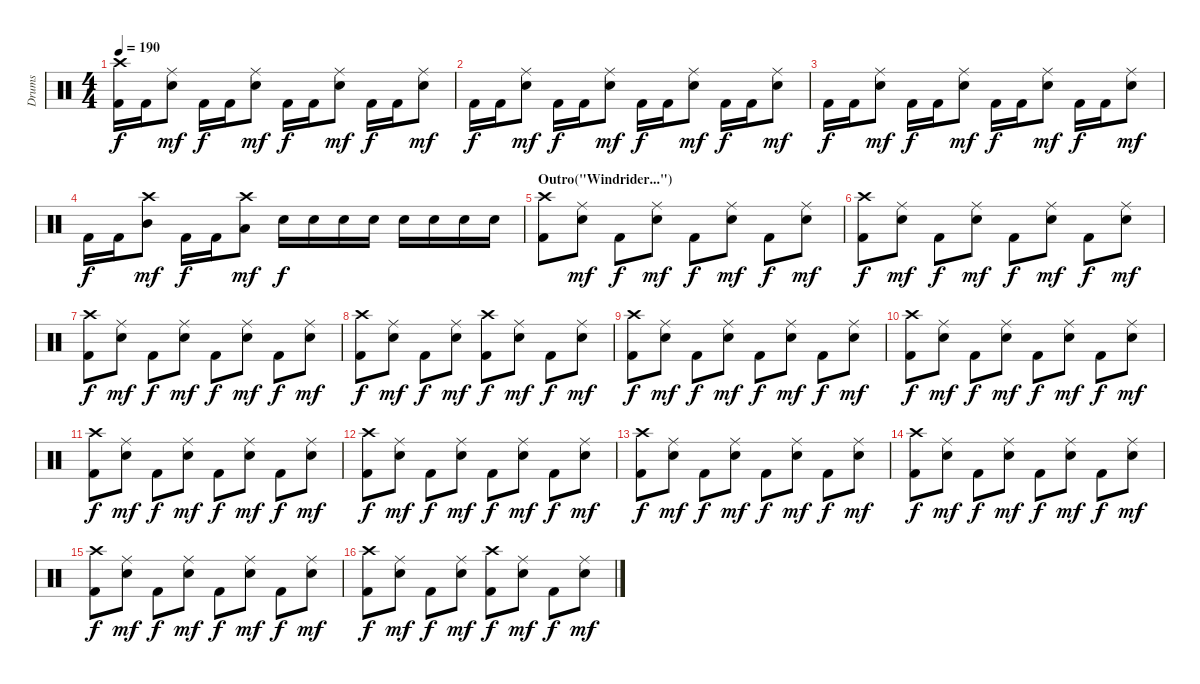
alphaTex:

\track ("Drums" "Drums") {instrument percussion}
\staff {score}
\articulation defaults
\ts (4 4)
\tempo 190
\clef neutral
\ks c
("Crash high (hit)" "Kick (hit) 2").16{dy f} "Kick (hit) 2".16 ("Ride (middle)" "Snare (hit) 2").8{dy mf} "Kick (hit) 2".16{dy f} "Kick (hit) 2".16 ("Ride (middle)" "Snare (hit) 2").8{dy mf} "Kick (hit) 2".16{dy f} "Kick (hit) 2".16 ("Ride (middle)" "Snare (hit) 2").8{dy mf} "Kick (hit) 2".16{dy f} "Kick (hit) 2".16 ("Ride (middle)" "Snare (hit) 2").8{dy mf} |
"Kick (hit) 2".16{dy f} "Kick (hit) 2".16 ("Ride (middle)" "Snare (hit) 2").8{dy mf} "Kick (hit) 2".16{dy f} "Kick (hit) 2".16 ("Ride (middle)" "Snare (hit) 2").8{dy mf} "Kick (hit) 2".16{dy f} "Kick (hit) 2".16 ("Ride (middle)" "Snare (hit) 2").8{dy mf} "Kick (hit) 2".16{dy f} "Kick (hit) 2".16 ("Ride (middle)" "Snare (hit) 2").8{dy mf} |
"Kick (hit) 2".16{dy f} "Kick (hit) 2".16 ("Ride (middle)" "Snare (hit) 2").8{dy mf} "Kick (hit) 2".16{dy f} "Kick (hit) 2".16 ("Ride (middle)" "Snare (hit) 2").8{dy mf} "Kick (hit) 2".16{dy f} "Kick (hit) 2".16 ("Ride (middle)" "Snare (hit) 2").8{dy mf} "Kick (hit) 2".16{dy f} "Kick (hit) 2".16 ("Ride (middle)" "Snare (hit) 2").8{dy mf} |
"Kick (hit) 2".16{dy f} "Kick (hit) 2".16 ("Crash high (hit)" "Mid Tom (hit)").8{dy mf} "Kick (hit) 2".16{dy f} "Kick (hit) 2".16 ("Crash high (hit)" "Low Tom (hit)").8{dy mf} "Snare (hit) 2".16{dy f} "Snare (hit) 2".16 "Snare (hit) 2".16 "Snare (hit) 2".16 "Snare (hit) 2".16 "Snare (hit) 2".16 "Snare (hit) 2".16 "Snare (hit) 2".16 |
\section ("" "Outro(\"Windrider...\")")
("Crash high (hit)" "Kick (hit) 2").8 ("Ride (middle)" "Snare (hit) 2").8{dy mf} "Kick (hit) 2".8{dy f} ("Ride (middle)" "Snare (hit) 2").8{dy mf} "Kick (hit) 2".8{dy f} ("Ride (middle)" "Snare (hit) 2").8{dy mf} "Kick (hit) 2".8{dy f} ("Ride (middle)" "Snare (hit) 2").8{dy mf} |
("Crash high (hit)" "Kick (hit) 2").8{dy f} ("Ride (middle)" "Snare (hit) 2").8{dy mf} "Kick (hit) 2".8{dy f} ("Ride (middle)" "Snare (hit) 2").8{dy mf} "Kick (hit) 2".8{dy f} ("Ride (middle)" "Snare (hit) 2").8{dy mf} "Kick (hit) 2".8{dy f} ("Ride (middle)" "Snare (hit) 2").8{dy mf} |
("Crash high (hit)" "Kick (hit) 2").8{dy f} ("Ride (middle)" "Snare (hit) 2").8{dy mf} "Kick (hit) 2".8{dy f} ("Ride (middle)" "Snare (hit) 2").8{dy mf} "Kick (hit) 2".8{dy f} ("Ride (middle)" "Snare (hit) 2").8{dy mf} "Kick (hit) 2".8{dy f} ("Ride (middle)" "Snare (hit) 2").8{dy mf} |
("Crash high (hit)" "Kick (hit) 2").8{dy f} ("Ride (middle)" "Snare (hit) 2").8{dy mf} "Kick (hit) 2".8{dy f} ("Ride (middle)" "Snare (hit) 2").8{dy mf} ("Crash high (hit)" "Kick (hit) 2").8{dy f} ("Ride (middle)" "Snare (hit) 2").8{dy mf} "Kick (hit) 2".8{dy f} ("Ride (middle)" "Snare (hit) 2").8{dy mf} |
("Crash high (hit)" "Kick (hit) 2").8{dy f} ("Ride (middle)" "Snare (hit) 2").8{dy mf} "Kick (hit) 2".8{dy f} ("Ride (middle)" "Snare (hit) 2").8{dy mf} "Kick (hit) 2".8{dy f} ("Ride (middle)" "Snare (hit) 2").8{dy mf} "Kick (hit) 2".8{dy f} ("Ride (middle)" "Snare (hit) 2").8{dy mf} |
("Crash high (hit)" "Kick (hit) 2").8{dy f} ("Ride (middle)" "Snare (hit) 2").8{dy mf} "Kick (hit) 2".8{dy f} ("Ride (middle)" "Snare (hit) 2").8{dy mf} "Kick (hit) 2".8{dy f} ("Ride (middle)" "Snare (hit) 2").8{dy mf} "Kick (hit) 2".8{dy f} ("Ride (middle)" "Snare (hit) 2").8{dy mf} |
("Crash high (hit)" "Kick (hit) 2").8{dy f} ("Ride (middle)" "Snare (hit) 2").8{dy mf} "Kick (hit) 2".8{dy f} ("Ride (middle)" "Snare (hit) 2").8{dy mf} "Kick (hit) 2".8{dy f} ("Ride (middle)" "Snare (hit) 2").8{dy mf} "Kick (hit) 2".8{dy f} ("Ride (middle)" "Snare (hit) 2").8{dy mf} |
("Crash high (hit)" "Kick (hit) 2").8{dy f} ("Ride (middle)" "Snare (hit) 2").8{dy mf} "Kick (hit) 2".8{dy f} ("Ride (middle)" "Snare (hit) 2").8{dy mf} "Kick (hit) 2".8{dy f} ("Ride (middle)" "Snare (hit) 2").8{dy mf} "Kick (hit) 2".8{dy f} ("Ride (middle)" "Snare (hit) 2").8{dy mf} |
("Crash high (hit)" "Kick (hit) 2").8{dy f} ("Ride (middle)" "Snare (hit) 2").8{dy mf} "Kick (hit) 2".8{dy f} ("Ride (middle)" "Snare (hit) 2").8{dy mf} "Kick (hit) 2".8{dy f} ("Ride (middle)" "Snare (hit) 2").8{dy mf} "Kick (hit) 2".8{dy f} ("Ride (middle)" "Snare (hit) 2").8{dy mf} |
("Crash high (hit)" "Kick (hit) 2").8{dy f} ("Ride (middle)" "Snare (hit) 2").8{dy mf} "Kick (hit) 2".8{dy f} ("Ride (middle)" "Snare (hit) 2").8{dy mf} "Kick (hit) 2".8{dy f} ("Ride (middle)" "Snare (hit) 2").8{dy mf} "Kick (hit) 2".8{dy f} ("Ride (middle)" "Snare (hit) 2").8{dy mf} |
("Crash high (hit)" "Kick (hit) 2").8{dy f} ("Ride (middle)" "Snare (hit) 2").8{dy mf} "Kick (hit) 2".8{dy f} ("Ride (middle)" "Snare (hit) 2").8{dy mf} "Kick (hit) 2".8{dy f} ("Ride (middle)" "Snare (hit) 2").8{dy mf} "Kick (hit) 2".8{dy f} ("Ride (middle)" "Snare (hit) 2").8{dy mf} |
("Crash high (hit)" "Kick (hit) 2").8{dy f} ("Ride (middle)" "Snare (hit) 2").8{dy mf} "Kick (hit) 2".8{dy f} ("Ride (middle)" "Snare (hit) 2").8{dy mf} ("Crash high (hit)" "Kick (hit) 2").8{dy f} ("Ride (middle)" "Snare (hit) 2").8{dy mf} "Kick (hit) 2".8{dy f} ("Ride (middle)" "Snare (hit) 2").8{dy mf}
